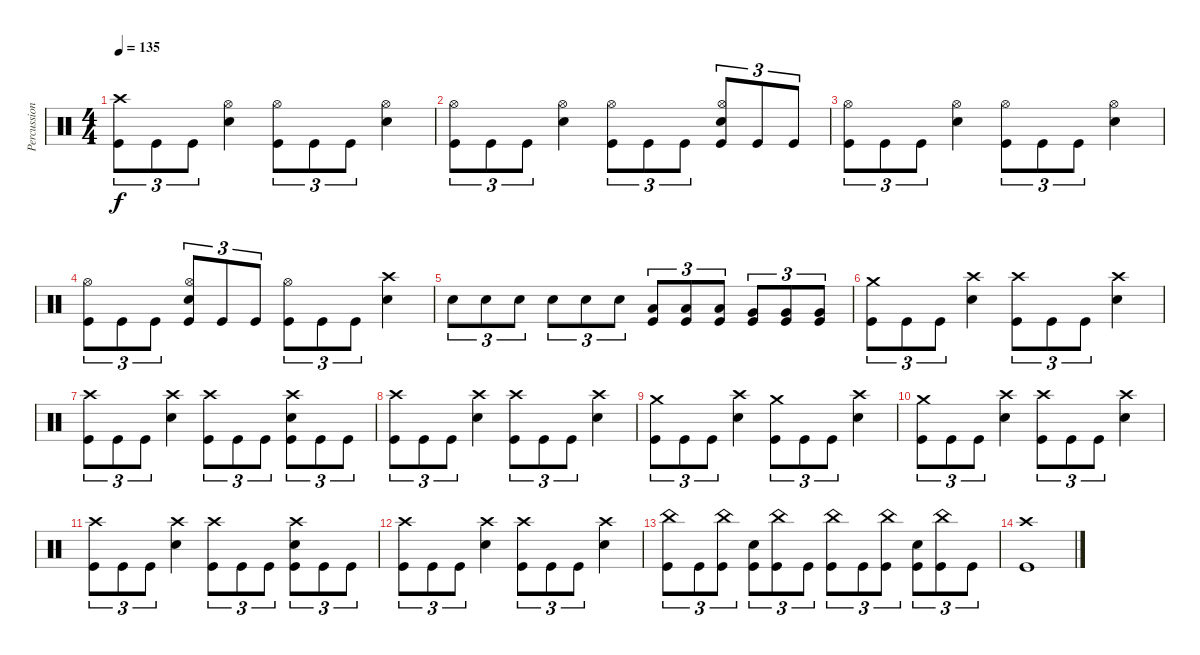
\track ("Percussions" "Percussion") {instrument percussion}
\staff {score}
\articulation defaults
\ts (4 4)
\tempo 135
\clef neutral
\ks c
("Crash high (hit)" "Kick (hit)").8{tu (3 2) dy f} "Kick (hit)".8{tu (3 2)} "Kick (hit)".8{tu (3 2)} ("Hi-Hat (open)" "Electric Snare (hit)").4 ("Hi-Hat (open)" "Kick (hit)").8{tu (3 2)} "Kick (hit)".8{tu (3 2)} "Kick (hit)".8{tu (3 2)} ("Hi-Hat (open)" "Electric Snare (hit)").4 |
("Hi-Hat (open)" "Kick (hit)").8{tu (3 2)} "Kick (hit)".8{tu (3 2)} "Kick (hit)".8{tu (3 2)} ("Hi-Hat (open)" "Electric Snare (hit)").4 ("Hi-Hat (open)" "Kick (hit)").8{tu (3 2)} "Kick (hit)".8{tu (3 2)} "Kick (hit)".8{tu (3 2)} ("Hi-Hat (open)" "Electric Snare (hit)" "Kick (hit)").8{tu (3 2)} "Kick (hit)".8{tu (3 2)} "Kick (hit)".8{tu (3 2)} |
("Hi-Hat (open)" "Kick (hit)").8{tu (3 2)} "Kick (hit)".8{tu (3 2)} "Kick (hit)".8{tu (3 2)} ("Hi-Hat (open)" "Electric Snare (hit)").4 ("Hi-Hat (open)" "Kick (hit)").8{tu (3 2)} "Kick (hit)".8{tu (3 2)} "Kick (hit)".8{tu (3 2)} ("Hi-Hat (open)" "Electric Snare (hit)").4 |
("Hi-Hat (open)" "Kick (hit)").8{tu (3 2)} "Kick (hit)".8{tu (3 2)} "Kick (hit)".8{tu (3 2)} ("Hi-Hat (open)" "Electric Snare (hit)" "Kick (hit)").8{tu (3 2)} "Kick (hit)".8{tu (3 2)} "Kick (hit)".8{tu (3 2)} ("Hi-Hat (open)" "Kick (hit)").8{tu (3 2)} "Kick (hit)".8{tu (3 2)} "Kick (hit)".8{tu (3 2)} ("Crash high (hit)" "Electric Snare (hit)").4 |
"Electric Snare (hit)".8{tu (3 2)} "Electric Snare (hit)".8{tu (3 2)} "Electric Snare (hit)".8{tu (3 2)} "Electric Snare (hit)".8{tu (3 2)} "Electric Snare (hit)".8{tu (3 2)} "Electric Snare (hit)".8{tu (3 2)} ("Low Tom (hit)" "Kick (hit)").8{tu (3 2)} ("Low Tom (hit)" "Kick (hit)").8{tu (3 2)} ("Low Tom (hit)" "Kick (hit)").8{tu (3 2)} ("Very Low Tom (hit)" "Kick (hit)").8{tu (3 2)} ("Very Low Tom (hit)" "Kick (hit)").8{tu (3 2)} ("Very Low Tom (hit)" "Kick (hit)").8{tu (3 2)} |
("Crash medium (hit)" "Kick (hit)").8{tu (3 2)} "Kick (hit)".8{tu (3 2)} "Kick (hit)".8{tu (3 2)} ("Crash high (hit)" "Electric Snare (hit)").4 ("Crash high (hit)" "Kick (hit)").8{tu (3 2)} "Kick (hit)".8{tu (3 2)} "Kick (hit)".8{tu (3 2)} ("Crash high (hit)" "Electric Snare (hit)").4 |
("Crash high (hit)" "Kick (hit)").8{tu (3 2)} "Kick (hit)".8{tu (3 2)} "Kick (hit)".8{tu (3 2)} ("Crash high (hit)" "Electric Snare (hit)").4 ("Crash high (hit)" "Kick (hit)").8{tu (3 2)} "Kick (hit)".8{tu (3 2)} "Kick (hit)".8{tu (3 2)} ("Crash high (hit)" "Electric Snare (hit)" "Kick (hit)").8{tu (3 2)} "Kick (hit)".8{tu (3 2)} "Kick (hit)".8{tu (3 2)} |
("Crash high (hit)" "Kick (hit)").8{tu (3 2)} "Kick (hit)".8{tu (3 2)} "Kick (hit)".8{tu (3 2)} ("Crash high (hit)" "Electric Snare (hit)").4 ("Crash high (hit)" "Kick (hit)").8{tu (3 2)} "Kick (hit)".8{tu (3 2)} "Kick (hit)".8{tu (3 2)} ("Crash high (hit)" "Electric Snare (hit)").4 |
("Crash medium (hit)" "Kick (hit)").8{tu (3 2)} "Kick (hit)".8{tu (3 2)} "Kick (hit)".8{tu (3 2)} ("Crash high (hit)" "Electric Snare (hit)").4 ("Crash medium (hit)" "Kick (hit)").8{tu (3 2)} "Kick (hit)".8{tu (3 2)} "Kick (hit)".8{tu (3 2)} ("Crash high (hit)" "Electric Snare (hit)").4 |
("Crash medium (hit)" "Kick (hit)").8{tu (3 2)} "Kick (hit)".8{tu (3 2)} "Kick (hit)".8{tu (3 2)} ("Crash high (hit)" "Electric Snare (hit)").4 ("Crash high (hit)" "Kick (hit)").8{tu (3 2)} "Kick (hit)".8{tu (3 2)} "Kick (hit)".8{tu (3 2)} ("Crash high (hit)" "Electric Snare (hit)").4 |
("Crash high (hit)" "Kick (hit)").8{tu (3 2)} "Kick (hit)".8{tu (3 2)} "Kick (hit)".8{tu (3 2)} ("Crash high (hit)" "Electric Snare (hit)").4 ("Crash high (hit)" "Kick (hit)").8{tu (3 2)} "Kick (hit)".8{tu (3 2)} "Kick (hit)".8{tu (3 2)} ("Crash high (hit)" "Electric Snare (hit)" "Kick (hit)").8{tu (3 2)} "Kick (hit)".8{tu (3 2)} "Kick (hit)".8{tu (3 2)} |
("Crash high (hit)" "Kick (hit)").8{tu (3 2)} "Kick (hit)".8{tu (3 2)} "Kick (hit)".8{tu (3 2)} ("Crash high (hit)" "Electric Snare (hit)").4 ("Crash high (hit)" "Kick (hit)").8{tu (3 2)} "Kick (hit)".8{tu (3 2)} "Kick (hit)".8{tu (3 2)} ("Crash high (hit)" "Electric Snare (hit)").4 |
("China (hit)" "Kick (hit)").8{tu (3 2)} "Kick (hit)".8{tu (3 2)} ("China (hit)" "Kick (hit)").8{tu (3 2)} ("Electric Snare (hit)" "Kick (hit)").8{tu (3 2)} ("China (hit)" "Kick (hit)").8{tu (3 2)} "Kick (hit)".8{tu (3 2)} ("China (hit)" "Kick (hit)").8{tu (3 2)} "Kick (hit)".8{tu (3 2)} ("China (hit)" "Kick (hit)").8{tu (3 2)} ("Electric Snare (hit)" "Kick (hit)").8{tu (3 2)} ("China (hit)" "Kick (hit)").8{tu (3 2)} "Kick (hit)".8{tu (3 2)} |
("Crash high (hit)" "Kick (hit)").1
